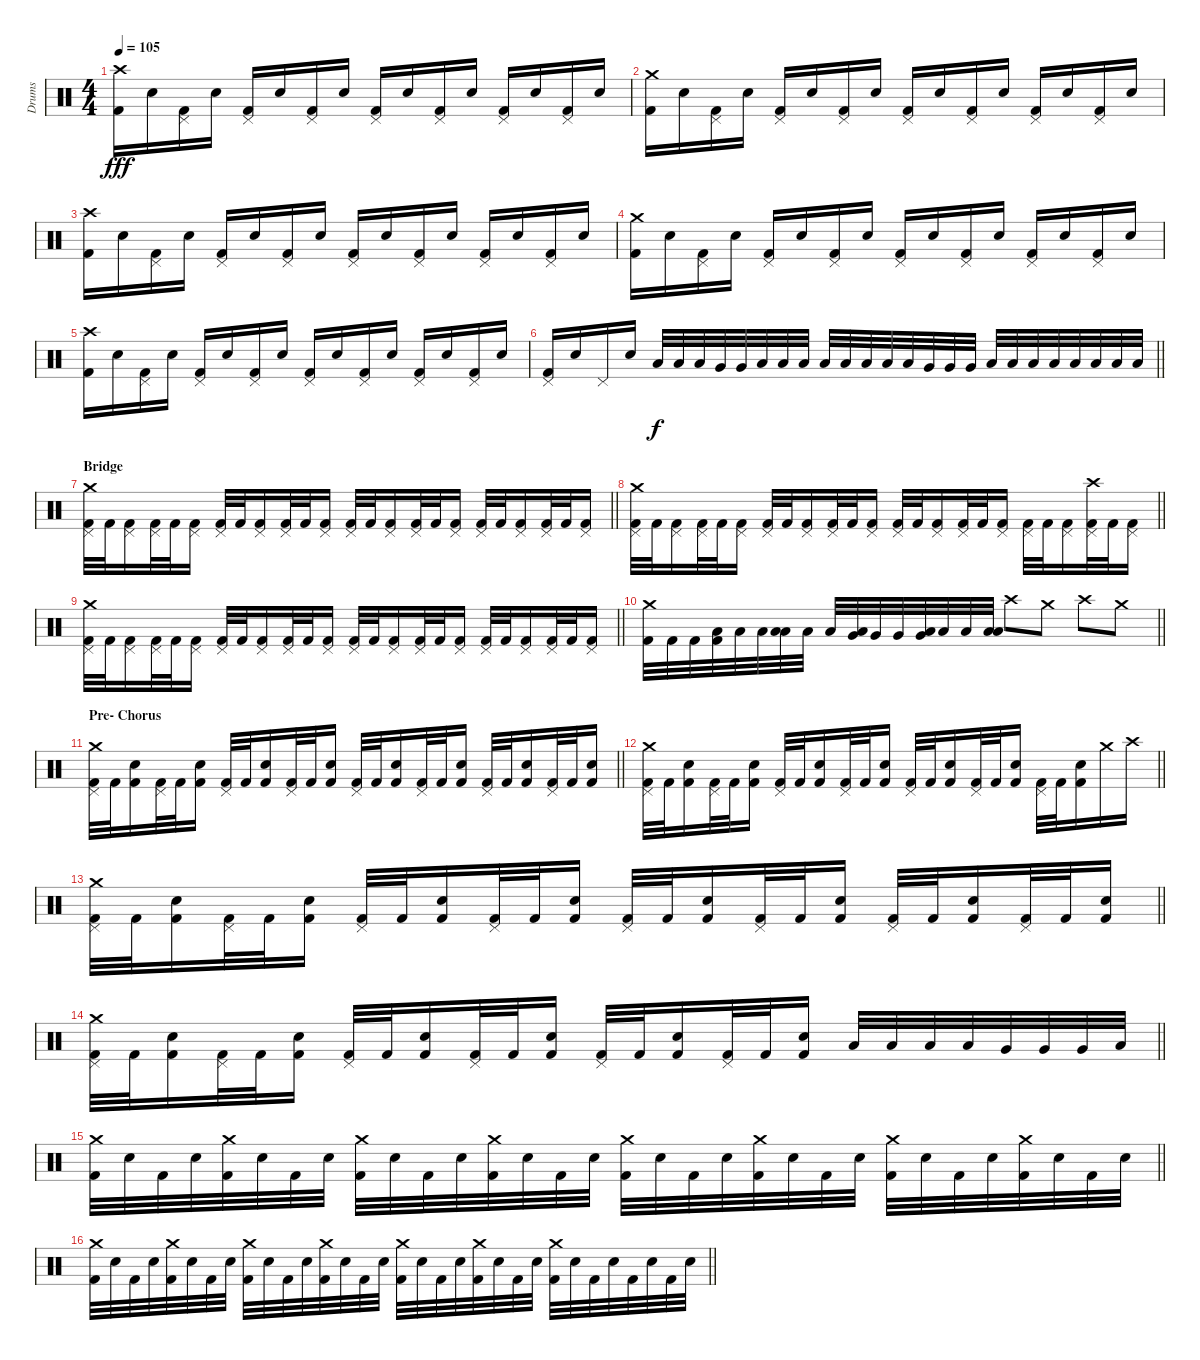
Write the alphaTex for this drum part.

\track ("Drums" "Drums") {instrument percussion}
\staff {score}
\articulation defaults
\ts (4 4)
\tempo 105
\clef neutral
\ks c
("Crash high (hit)" "Kick (hit) 2").16{dy fff} "Electric Snare (hit)".16 ("Pedal Hi-Hat (hit)" "Kick (hit) 2").16 "Electric Snare (hit)".16 ("Pedal Hi-Hat (hit)" "Kick (hit) 2").16 "Electric Snare (hit)".16 ("Pedal Hi-Hat (hit)" "Kick (hit) 2").16 "Electric Snare (hit)".16 ("Pedal Hi-Hat (hit)" "Kick (hit) 2").16 "Electric Snare (hit)".16 ("Pedal Hi-Hat (hit)" "Kick (hit) 2").16 "Electric Snare (hit)".16 ("Pedal Hi-Hat (hit)" "Kick (hit) 2").16 "Electric Snare (hit)".16 ("Pedal Hi-Hat (hit)" "Kick (hit) 2").16 "Electric Snare (hit)".16 |
("Crash medium (hit)" "Kick (hit) 2").16 "Electric Snare (hit)".16 ("Pedal Hi-Hat (hit)" "Kick (hit) 2").16 "Electric Snare (hit)".16 ("Pedal Hi-Hat (hit)" "Kick (hit) 2").16 "Electric Snare (hit)".16 ("Pedal Hi-Hat (hit)" "Kick (hit) 2").16 "Electric Snare (hit)".16 ("Pedal Hi-Hat (hit)" "Kick (hit) 2").16 "Electric Snare (hit)".16 ("Pedal Hi-Hat (hit)" "Kick (hit) 2").16 "Electric Snare (hit)".16 ("Pedal Hi-Hat (hit)" "Kick (hit) 2").16 "Electric Snare (hit)".16 ("Pedal Hi-Hat (hit)" "Kick (hit) 2").16 "Electric Snare (hit)".16 |
("Crash high (hit)" "Kick (hit) 2").16 "Electric Snare (hit)".16 ("Pedal Hi-Hat (hit)" "Kick (hit) 2").16 "Electric Snare (hit)".16 ("Pedal Hi-Hat (hit)" "Kick (hit) 2").16 "Electric Snare (hit)".16 ("Pedal Hi-Hat (hit)" "Kick (hit) 2").16 "Electric Snare (hit)".16 ("Pedal Hi-Hat (hit)" "Kick (hit) 2").16 "Electric Snare (hit)".16 ("Pedal Hi-Hat (hit)" "Kick (hit) 2").16 "Electric Snare (hit)".16 ("Pedal Hi-Hat (hit)" "Kick (hit) 2").16 "Electric Snare (hit)".16 ("Pedal Hi-Hat (hit)" "Kick (hit) 2").16 "Electric Snare (hit)".16 |
("Crash medium (hit)" "Kick (hit) 2").16 "Electric Snare (hit)".16 ("Pedal Hi-Hat (hit)" "Kick (hit) 2").16 "Electric Snare (hit)".16 ("Pedal Hi-Hat (hit)" "Kick (hit) 2").16 "Electric Snare (hit)".16 ("Pedal Hi-Hat (hit)" "Kick (hit) 2").16 "Electric Snare (hit)".16 ("Pedal Hi-Hat (hit)" "Kick (hit) 2").16 "Electric Snare (hit)".16 ("Pedal Hi-Hat (hit)" "Kick (hit) 2").16 "Electric Snare (hit)".16 ("Pedal Hi-Hat (hit)" "Kick (hit) 2").16 "Electric Snare (hit)".16 ("Pedal Hi-Hat (hit)" "Kick (hit) 2").16 "Electric Snare (hit)".16 |
("Crash high (hit)" "Kick (hit) 2").16 "Electric Snare (hit)".16 ("Pedal Hi-Hat (hit)" "Kick (hit) 2").16 "Electric Snare (hit)".16 ("Pedal Hi-Hat (hit)" "Kick (hit) 2").16 "Electric Snare (hit)".16 ("Pedal Hi-Hat (hit)" "Kick (hit) 2").16 "Electric Snare (hit)".16 ("Pedal Hi-Hat (hit)" "Kick (hit) 2").16 "Electric Snare (hit)".16 ("Pedal Hi-Hat (hit)" "Kick (hit) 2").16 "Electric Snare (hit)".16 ("Pedal Hi-Hat (hit)" "Kick (hit) 2").16 "Electric Snare (hit)".16 ("Pedal Hi-Hat (hit)" "Kick (hit) 2").16 "Electric Snare (hit)".16 |
\barLineRight lightlight
("Pedal Hi-Hat (hit)" "Kick (hit) 2").16 "Electric Snare (hit)".16 "Pedal Hi-Hat (hit)".16 "Electric Snare (hit)".16 "Low Floor Tom (hit)".32{dy f} "Low Floor Tom (hit)".32 "Low Floor Tom (hit)".32 "Very Low Tom (hit)".32 "Very Low Tom (hit)".32 "Low Tom (hit)".32 "Low Tom (hit)".32 "Low Tom (hit)".32 "Low Tom (hit)".32 "Low Tom (hit)".32 "Low Floor Tom (hit)".32 "Low Floor Tom (hit)".32 "Low Floor Tom (hit)".32 "Very Low Tom (hit)".32 "Very Low Tom (hit)".32 "Very Low Tom (hit)".32 "Low Tom (hit)".32 "Low Tom (hit)".32 "Low Tom (hit)".32 "Low Tom (hit)".32 "Low Tom (hit)".32 "Low Floor Tom (hit)".32 "Low Floor Tom (hit)".32 "Low Floor Tom (hit)".32 |
\section ("" "Bridge")
\barLineRight lightlight
("Crash medium (hit)" "Pedal Hi-Hat (hit)" "Kick (hit) 2").32 "Kick (hit) 2".32 ("Pedal Hi-Hat (hit)" "Kick (hit) 2").16 ("Pedal Hi-Hat (hit)" "Kick (hit) 2").32 "Kick (hit) 2".32 ("Pedal Hi-Hat (hit)" "Kick (hit) 2").16 ("Pedal Hi-Hat (hit)" "Kick (hit) 2").32 "Kick (hit) 2".32 ("Pedal Hi-Hat (hit)" "Kick (hit) 2").16 ("Pedal Hi-Hat (hit)" "Kick (hit) 2").32 "Kick (hit) 2".32 ("Pedal Hi-Hat (hit)" "Kick (hit) 2").16 ("Pedal Hi-Hat (hit)" "Kick (hit) 2").32 "Kick (hit) 2".32 ("Pedal Hi-Hat (hit)" "Kick (hit) 2").16 ("Pedal Hi-Hat (hit)" "Kick (hit) 2").32 "Kick (hit) 2".32 ("Pedal Hi-Hat (hit)" "Kick (hit) 2").16 ("Pedal Hi-Hat (hit)" "Kick (hit) 2").32 "Kick (hit) 2".32 ("Pedal Hi-Hat (hit)" "Kick (hit) 2").16 ("Pedal Hi-Hat (hit)" "Kick (hit) 2").32 "Kick (hit) 2".32 ("Pedal Hi-Hat (hit)" "Kick (hit) 2").16 |
\barLineRight lightlight
("Crash medium (hit)" "Pedal Hi-Hat (hit)" "Kick (hit) 2").32 "Kick (hit) 2".32 ("Pedal Hi-Hat (hit)" "Kick (hit) 2").16 ("Pedal Hi-Hat (hit)" "Kick (hit) 2").32 "Kick (hit) 2".32 ("Pedal Hi-Hat (hit)" "Kick (hit) 2").16 ("Pedal Hi-Hat (hit)" "Kick (hit) 2").32 "Kick (hit) 2".32 ("Pedal Hi-Hat (hit)" "Kick (hit) 2").16 ("Pedal Hi-Hat (hit)" "Kick (hit) 2").32 "Kick (hit) 2".32 ("Pedal Hi-Hat (hit)" "Kick (hit) 2").16 ("Pedal Hi-Hat (hit)" "Kick (hit) 2").32 "Kick (hit) 2".32 ("Pedal Hi-Hat (hit)" "Kick (hit) 2").16 ("Pedal Hi-Hat (hit)" "Kick (hit) 2").32 "Kick (hit) 2".32 ("Pedal Hi-Hat (hit)" "Kick (hit) 2").16 ("Pedal Hi-Hat (hit)" "Kick (hit) 2").32 "Kick (hit) 2".32 ("Pedal Hi-Hat (hit)" "Kick (hit) 2").16 ("Crash high (hit)" "Pedal Hi-Hat (hit)" "Kick (hit) 2").32 "Kick (hit) 2".32 ("Pedal Hi-Hat (hit)" "Kick (hit) 2").16 |
\barLineRight lightlight
("Crash medium (hit)" "Pedal Hi-Hat (hit)" "Kick (hit) 2").32 "Kick (hit) 2".32 ("Pedal Hi-Hat (hit)" "Kick (hit) 2").16 ("Pedal Hi-Hat (hit)" "Kick (hit) 2").32 "Kick (hit) 2".32 ("Pedal Hi-Hat (hit)" "Kick (hit) 2").16 ("Pedal Hi-Hat (hit)" "Kick (hit) 2").32 "Kick (hit) 2".32 ("Pedal Hi-Hat (hit)" "Kick (hit) 2").16 ("Pedal Hi-Hat (hit)" "Kick (hit) 2").32 "Kick (hit) 2".32 ("Pedal Hi-Hat (hit)" "Kick (hit) 2").16 ("Pedal Hi-Hat (hit)" "Kick (hit) 2").32 "Kick (hit) 2".32 ("Pedal Hi-Hat (hit)" "Kick (hit) 2").16 ("Pedal Hi-Hat (hit)" "Kick (hit) 2").32 "Kick (hit) 2".32 ("Pedal Hi-Hat (hit)" "Kick (hit) 2").16 ("Pedal Hi-Hat (hit)" "Kick (hit) 2").32 "Kick (hit) 2".32 ("Pedal Hi-Hat (hit)" "Kick (hit) 2").16 ("Pedal Hi-Hat (hit)" "Kick (hit) 2").32 "Kick (hit) 2".32 ("Pedal Hi-Hat (hit)" "Kick (hit) 2").16 |
\barLineRight lightlight
("Crash medium (hit)" "Kick (hit) 2").32 "Kick (hit) 2".32 "Kick (hit) 2".32 ("Low Tom (hit)" "Kick (hit) 2").32 "Low Tom (hit)".32 "Low Tom (hit)".32 ("Low Tom (hit)" "Low Floor Tom (hit)").32 "Low Floor Tom (hit)".32 "Low Floor Tom (hit)".32 ("Very Low Tom (hit)" "Low Floor Tom (hit)").32 "Very Low Tom (hit)".32 "Very Low Tom (hit)".32 ("Very Low Tom (hit)" "Low Floor Tom (hit)").32 "Low Floor Tom (hit)".32 "Low Floor Tom (hit)".32 ("Low Tom (hit)" "Low Floor Tom (hit)").32 "Crash high (hit)".8 "Crash medium (hit)".8 "Crash high (hit)".8 "Crash medium (hit)".8 |
\section ("" "Pre- Chorus")
\barLineRight lightlight
("Crash medium (hit)" "Pedal Hi-Hat (hit)" "Kick (hit) 2").32 "Kick (hit) 2".32 ("Electric Snare (hit)" "Kick (hit) 2").16 ("Pedal Hi-Hat (hit)" "Kick (hit) 2").32 "Kick (hit) 2".32 ("Electric Snare (hit)" "Kick (hit) 2").16 ("Pedal Hi-Hat (hit)" "Kick (hit) 2").32 "Kick (hit) 2".32 ("Electric Snare (hit)" "Kick (hit) 2").16 ("Pedal Hi-Hat (hit)" "Kick (hit) 2").32 "Kick (hit) 2".32 ("Electric Snare (hit)" "Kick (hit) 2").16 ("Pedal Hi-Hat (hit)" "Kick (hit) 2").32 "Kick (hit) 2".32 ("Electric Snare (hit)" "Kick (hit) 2").16 ("Pedal Hi-Hat (hit)" "Kick (hit) 2").32 "Kick (hit) 2".32 ("Electric Snare (hit)" "Kick (hit) 2").16 ("Pedal Hi-Hat (hit)" "Kick (hit) 2").32 "Kick (hit) 2".32 ("Electric Snare (hit)" "Kick (hit) 2").16 ("Pedal Hi-Hat (hit)" "Kick (hit) 2").32 "Kick (hit) 2".32 ("Electric Snare (hit)" "Kick (hit) 2").16 |
\barLineRight lightlight
("Crash medium (hit)" "Pedal Hi-Hat (hit)" "Kick (hit) 2").32 "Kick (hit) 2".32 ("Electric Snare (hit)" "Kick (hit) 2").16 ("Pedal Hi-Hat (hit)" "Kick (hit) 2").32 "Kick (hit) 2".32 ("Electric Snare (hit)" "Kick (hit) 2").16 ("Pedal Hi-Hat (hit)" "Kick (hit) 2").32 "Kick (hit) 2".32 ("Electric Snare (hit)" "Kick (hit) 2").16 ("Pedal Hi-Hat (hit)" "Kick (hit) 2").32 "Kick (hit) 2".32 ("Electric Snare (hit)" "Kick (hit) 2").16 ("Pedal Hi-Hat (hit)" "Kick (hit) 2").32 "Kick (hit) 2".32 ("Electric Snare (hit)" "Kick (hit) 2").16 ("Pedal Hi-Hat (hit)" "Kick (hit) 2").32 "Kick (hit) 2".32 ("Electric Snare (hit)" "Kick (hit) 2").16 ("Pedal Hi-Hat (hit)" "Kick (hit) 2").32 "Kick (hit) 2".32 ("Electric Snare (hit)" "Kick (hit) 2").16 "Crash medium (hit)".16 "Crash high (hit)".16 |
\barLineRight lightlight
("Crash medium (hit)" "Pedal Hi-Hat (hit)" "Kick (hit) 2").32 "Kick (hit) 2".32 ("Electric Snare (hit)" "Kick (hit) 2").16 ("Pedal Hi-Hat (hit)" "Kick (hit) 2").32 "Kick (hit) 2".32 ("Electric Snare (hit)" "Kick (hit) 2").16 ("Pedal Hi-Hat (hit)" "Kick (hit) 2").32 "Kick (hit) 2".32 ("Electric Snare (hit)" "Kick (hit) 2").16 ("Pedal Hi-Hat (hit)" "Kick (hit) 2").32 "Kick (hit) 2".32 ("Electric Snare (hit)" "Kick (hit) 2").16 ("Pedal Hi-Hat (hit)" "Kick (hit) 2").32 "Kick (hit) 2".32 ("Electric Snare (hit)" "Kick (hit) 2").16 ("Pedal Hi-Hat (hit)" "Kick (hit) 2").32 "Kick (hit) 2".32 ("Electric Snare (hit)" "Kick (hit) 2").16 ("Pedal Hi-Hat (hit)" "Kick (hit) 2").32 "Kick (hit) 2".32 ("Electric Snare (hit)" "Kick (hit) 2").16 ("Pedal Hi-Hat (hit)" "Kick (hit) 2").32 "Kick (hit) 2".32 ("Electric Snare (hit)" "Kick (hit) 2").16 |
\barLineRight lightlight
("Crash medium (hit)" "Pedal Hi-Hat (hit)" "Kick (hit) 2").32 "Kick (hit) 2".32 ("Electric Snare (hit)" "Kick (hit) 2").16 ("Pedal Hi-Hat (hit)" "Kick (hit) 2").32 "Kick (hit) 2".32 ("Electric Snare (hit)" "Kick (hit) 2").16 ("Pedal Hi-Hat (hit)" "Kick (hit) 2").32 "Kick (hit) 2".32 ("Electric Snare (hit)" "Kick (hit) 2").16 ("Pedal Hi-Hat (hit)" "Kick (hit) 2").32 "Kick (hit) 2".32 ("Electric Snare (hit)" "Kick (hit) 2").16 ("Pedal Hi-Hat (hit)" "Kick (hit) 2").32 "Kick (hit) 2".32 ("Electric Snare (hit)" "Kick (hit) 2").16 ("Pedal Hi-Hat (hit)" "Kick (hit) 2").32 "Kick (hit) 2".32 ("Electric Snare (hit)" "Kick (hit) 2").16 "Low Floor Tom (hit)".32 "Low Floor Tom (hit)".32 "Low Floor Tom (hit)".32 "Low Floor Tom (hit)".32 "Very Low Tom (hit)".32 "Very Low Tom (hit)".32 "Very Low Tom (hit)".32 "Low Tom (hit)".32 |
\barLineRight lightlight
("Crash medium (hit)" "Kick (hit) 2").32 "Electric Snare (hit)".32 "Kick (hit) 2".32 "Electric Snare (hit)".32 ("Crash medium (hit)" "Kick (hit) 2").32 "Electric Snare (hit)".32 "Kick (hit) 2".32 "Electric Snare (hit)".32 ("Crash medium (hit)" "Kick (hit) 2").32 "Electric Snare (hit)".32 "Kick (hit) 2".32 "Electric Snare (hit)".32 ("Crash medium (hit)" "Kick (hit) 2").32 "Electric Snare (hit)".32 "Kick (hit) 2".32 "Electric Snare (hit)".32 ("Crash medium (hit)" "Kick (hit) 2").32 "Electric Snare (hit)".32 "Kick (hit) 2".32 "Electric Snare (hit)".32 ("Crash medium (hit)" "Kick (hit) 2").32 "Electric Snare (hit)".32 "Kick (hit) 2".32 "Electric Snare (hit)".32 ("Crash medium (hit)" "Kick (hit) 2").32 "Electric Snare (hit)".32 "Kick (hit) 2".32 "Electric Snare (hit)".32 ("Crash medium (hit)" "Kick (hit) 2").32 "Electric Snare (hit)".32 "Kick (hit) 2".32 "Electric Snare (hit)".32 |
\barLineRight lightlight
("Crash medium (hit)" "Kick (hit) 2").32 "Electric Snare (hit)".32 "Kick (hit) 2".32 "Electric Snare (hit)".32 ("Crash medium (hit)" "Kick (hit) 2").32 "Electric Snare (hit)".32 "Kick (hit) 2".32 "Electric Snare (hit)".32 ("Crash medium (hit)" "Kick (hit) 2").32 "Electric Snare (hit)".32 "Kick (hit) 2".32 "Electric Snare (hit)".32 ("Crash medium (hit)" "Kick (hit) 2").32 "Electric Snare (hit)".32 "Kick (hit) 2".32 "Electric Snare (hit)".32 ("Crash medium (hit)" "Kick (hit) 2").32 "Electric Snare (hit)".32 "Kick (hit) 2".32 "Electric Snare (hit)".32 ("Crash medium (hit)" "Kick (hit) 2").32 "Electric Snare (hit)".32 "Kick (hit) 2".32 "Electric Snare (hit)".32 ("Crash medium (hit)" "Kick (hit) 2").32 "Electric Snare (hit)".32 "Kick (hit) 2".32 "Electric Snare (hit)".32 "Kick (hit) 2".32 "Electric Snare (hit)".32 "Kick (hit) 2".32 "Electric Snare (hit)".32
